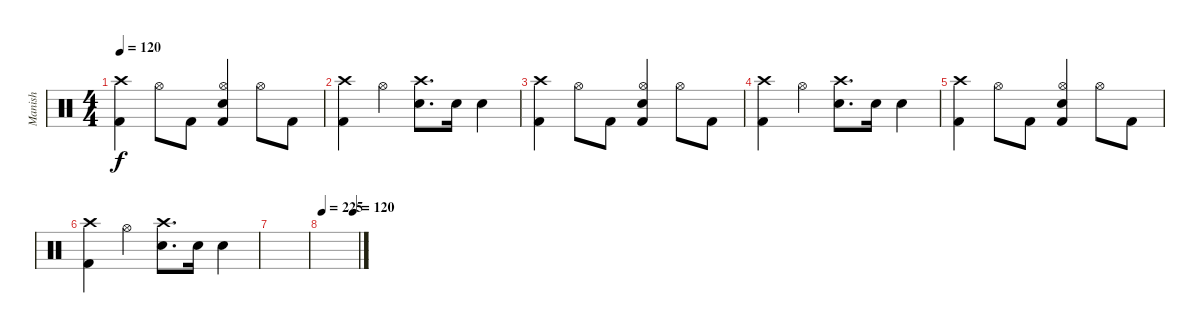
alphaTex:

\track ("Manish" "Manish") {instrument percussion}
\staff {score}
\articulation defaults
\ts (4 4)
\tempo 120
\clef neutral
\ks c
("Crash high (hit)" "Kick (hit) 2").4{dy f} "Hi-Hat (open)".8 "Kick (hit) 2".8 ("Hi-Hat (open)" "Kick (hit) 2" "Snare (hit) 2").4 "Hi-Hat (open)".8 "Kick (hit) 2".8 |
("Crash high (hit)" "Kick (hit) 2").4 "Hi-Hat (open)".4 ("Crash high (hit)" "Snare (hit) 2").8{d} "Snare (hit) 2".16 "Snare (hit) 2".4 |
("Crash high (hit)" "Kick (hit) 2").4 "Hi-Hat (open)".8 "Kick (hit) 2".8 ("Hi-Hat (open)" "Kick (hit) 2" "Snare (hit) 2").4 "Hi-Hat (open)".8 "Kick (hit) 2".8 |
("Crash high (hit)" "Kick (hit) 2").4 "Hi-Hat (open)".4 ("Crash high (hit)" "Snare (hit) 2").8{d} "Snare (hit) 2".16 "Snare (hit) 2".4 |
("Crash high (hit)" "Kick (hit) 2").4 "Hi-Hat (open)".8 "Kick (hit) 2".8 ("Hi-Hat (open)" "Kick (hit) 2" "Snare (hit) 2").4 "Hi-Hat (open)".8 "Kick (hit) 2".8 |
("Crash high (hit)" "Kick (hit) 2").4 "Hi-Hat (open)".4 ("Crash high (hit)" "Snare (hit) 2").8{d} "Snare (hit) 2".16 "Snare (hit) 2".4 |
|
\tempo 225
\tempo (120 0.875)
